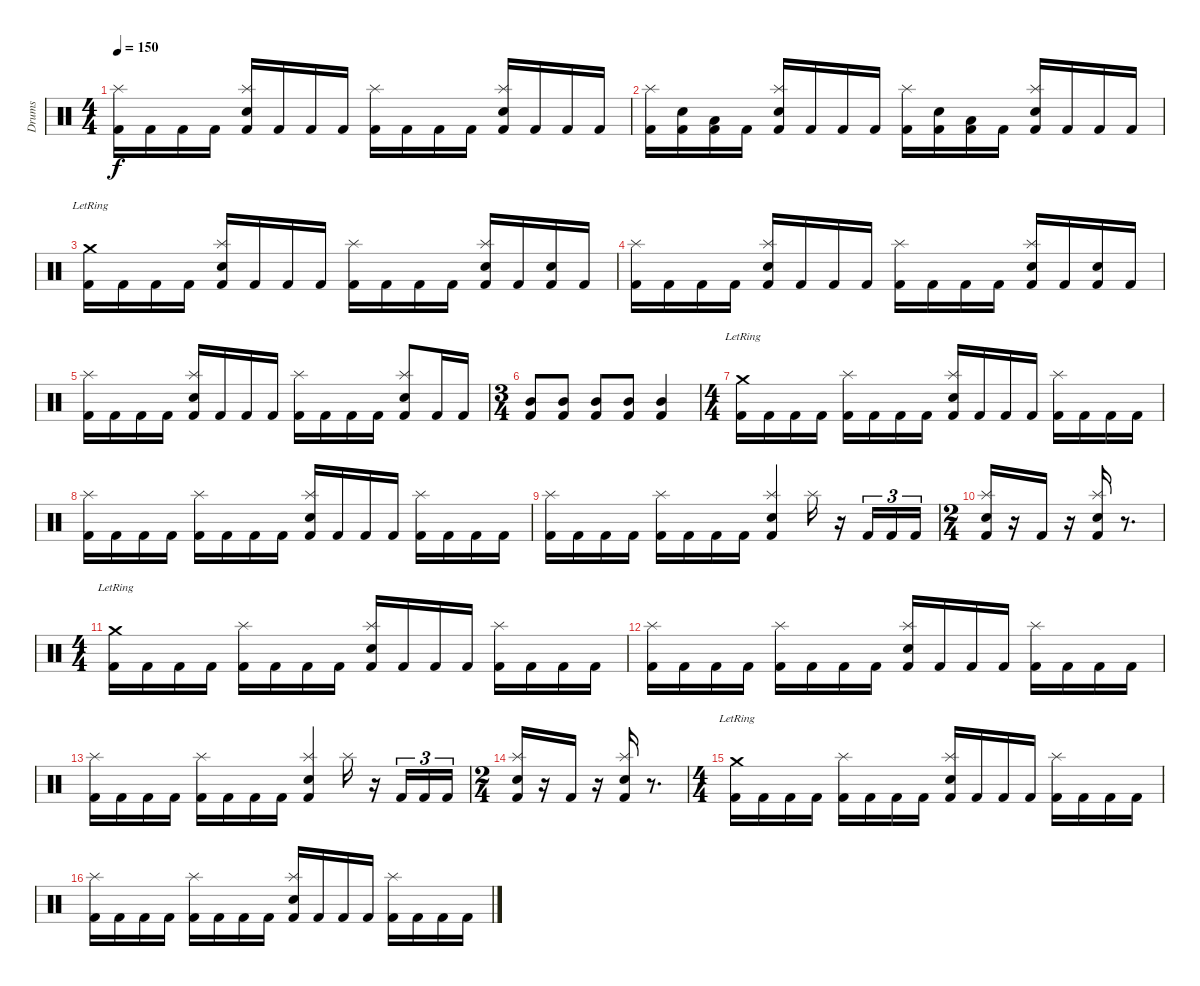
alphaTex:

\track ("Drums" "Drums") {instrument percussion}
\staff {score}
\articulation defaults
\ts (4 4)
\tempo 150
\clef neutral
\ks c
("Kick (hit) 2" "Splash (hit)").16{dy f} "Kick (hit) 2".16 "Kick (hit) 2".16 "Kick (hit) 2".16 ("Kick (hit) 2" "Snare (hit) 2" "Splash (hit)").16 "Kick (hit) 2".16 "Kick (hit) 2".16 "Kick (hit) 2".16 ("Kick (hit) 2" "Splash (hit)").16 "Kick (hit) 2".16 "Kick (hit) 2".16 "Kick (hit) 2".16 ("Kick (hit) 2" "Snare (hit) 2" "Splash (hit)").16 "Kick (hit) 2".16 "Kick (hit) 2".16 "Kick (hit) 2".16 |
("Kick (hit) 2" "Splash (hit)").16 ("Kick (hit) 2" "Electric Snare (hit)").16 ("Kick (hit) 2" "Low Floor Tom (hit)").16 "Kick (hit) 2".16 ("Kick (hit) 2" "Snare (hit) 2" "Splash (hit)").16 "Kick (hit) 2".16 "Kick (hit) 2".16 "Kick (hit) 2".16 ("Kick (hit) 2" "Splash (hit)").16 ("Kick (hit) 2" "Electric Snare (hit)").16 ("Kick (hit) 2" "Low Floor Tom (hit)").16 "Kick (hit) 2".16 ("Kick (hit) 2" "Snare (hit) 2" "Splash (hit)").16 "Kick (hit) 2".16 "Kick (hit) 2".16 "Kick (hit) 2".16 |
("Kick (hit) 2" "Crash medium (hit)"{lr}).16 "Kick (hit) 2".16 "Kick (hit) 2".16 "Kick (hit) 2".16 ("Kick (hit) 2" "Snare (hit) 2" "Splash (hit)").16 "Kick (hit) 2".16 "Kick (hit) 2".16 "Kick (hit) 2".16 ("Kick (hit) 2" "Splash (hit)").16 "Kick (hit) 2".16 "Kick (hit) 2".16 "Kick (hit) 2".16 ("Kick (hit) 2" "Snare (hit) 2" "Splash (hit)").16 "Kick (hit) 2".16 ("Kick (hit) 2" "Electric Snare (hit)").16 "Kick (hit) 2".16 |
("Kick (hit) 2" "Splash (hit)").16 "Kick (hit) 2".16 "Kick (hit) 2".16 "Kick (hit) 2".16 ("Kick (hit) 2" "Snare (hit) 2" "Splash (hit)").16 "Kick (hit) 2".16 "Kick (hit) 2".16 "Kick (hit) 2".16 ("Kick (hit) 2" "Splash (hit)").16 "Kick (hit) 2".16 "Kick (hit) 2".16 "Kick (hit) 2".16 ("Kick (hit) 2" "Snare (hit) 2" "Splash (hit)").16 "Kick (hit) 2".16 ("Kick (hit) 2" "Electric Snare (hit)").16 "Kick (hit) 2".16 |
("Kick (hit) 2" "Splash (hit)").16 "Kick (hit) 2".16 "Kick (hit) 2".16 "Kick (hit) 2".16 ("Kick (hit) 2" "Snare (hit) 2" "Splash (hit)").16 "Kick (hit) 2".16 "Kick (hit) 2".16 "Kick (hit) 2".16 ("Kick (hit) 2" "Splash (hit)").16 "Kick (hit) 2".16 "Kick (hit) 2".16 "Kick (hit) 2".16 ("Kick (hit) 2" "Snare (hit) 2" "Splash (hit)").8 "Kick (hit) 2".16 "Kick (hit) 2".16 |
\ts (3 4)
("Kick (hit) 2" "Mid Tom (hit)").8 ("Kick (hit) 2" "Mid Tom (hit)").8 ("Kick (hit) 2" "Mid Tom (hit)").8 ("Kick (hit) 2" "Mid Tom (hit)").8 ("Kick (hit) 2" "Mid Tom (hit)").4 |
\ts (4 4)
("Kick (hit) 2" "Crash medium (hit)"{lr}).16 "Kick (hit) 2".16 "Kick (hit) 2".16 "Kick (hit) 2".16 ("Kick (hit) 2" "Splash (hit)").16 "Kick (hit) 2".16 "Kick (hit) 2".16 "Kick (hit) 2".16 ("Kick (hit) 2" "Splash (hit)" "Snare (hit) 2").16 "Kick (hit) 2".16 "Kick (hit) 2".16 "Kick (hit) 2".16 ("Kick (hit) 2" "Splash (hit)").16 "Kick (hit) 2".16 "Kick (hit) 2".16 "Kick (hit) 2".16 |
("Kick (hit) 2" "Splash (hit)").16 "Kick (hit) 2".16 "Kick (hit) 2".16 "Kick (hit) 2".16 ("Kick (hit) 2" "Splash (hit)").16 "Kick (hit) 2".16 "Kick (hit) 2".16 "Kick (hit) 2".16 ("Kick (hit) 2" "Splash (hit)" "Snare (hit) 2").16 "Kick (hit) 2".16 "Kick (hit) 2".16 "Kick (hit) 2".16 ("Kick (hit) 2" "Splash (hit)").16 "Kick (hit) 2".16 "Kick (hit) 2".16 "Kick (hit) 2".16 |
("Kick (hit) 2" "Splash (hit)").16 "Kick (hit) 2".16 "Kick (hit) 2".16 "Kick (hit) 2".16 ("Kick (hit) 2" "Splash (hit)").16 "Kick (hit) 2".16 "Kick (hit) 2".16 "Kick (hit) 2".16 ("Kick (hit) 2" "Splash (hit)" "Snare (hit) 2").4 "Splash (hit)".16 r.16 "Kick (hit) 2".16{tu (3 2)} "Kick (hit) 2".16{tu (3 2)} "Kick (hit) 2".16{tu (3 2)} |
\ts (2 4)
("Kick (hit) 2" "Splash (hit)" "Snare (hit) 2").16 r.16 "Kick (hit) 2".16 r.16 ("Kick (hit) 2" "Splash (hit)" "Snare (hit) 2").16 r.8{d} |
\ts (4 4)
("Kick (hit) 2" "Crash medium (hit)"{lr}).16 "Kick (hit) 2".16 "Kick (hit) 2".16 "Kick (hit) 2".16 ("Kick (hit) 2" "Splash (hit)").16 "Kick (hit) 2".16 "Kick (hit) 2".16 "Kick (hit) 2".16 ("Kick (hit) 2" "Splash (hit)" "Snare (hit) 2").16 "Kick (hit) 2".16 "Kick (hit) 2".16 "Kick (hit) 2".16 ("Kick (hit) 2" "Splash (hit)").16 "Kick (hit) 2".16 "Kick (hit) 2".16 "Kick (hit) 2".16 |
("Kick (hit) 2" "Splash (hit)").16 "Kick (hit) 2".16 "Kick (hit) 2".16 "Kick (hit) 2".16 ("Kick (hit) 2" "Splash (hit)").16 "Kick (hit) 2".16 "Kick (hit) 2".16 "Kick (hit) 2".16 ("Kick (hit) 2" "Splash (hit)" "Snare (hit) 2").16 "Kick (hit) 2".16 "Kick (hit) 2".16 "Kick (hit) 2".16 ("Kick (hit) 2" "Splash (hit)").16 "Kick (hit) 2".16 "Kick (hit) 2".16 "Kick (hit) 2".16 |
("Kick (hit) 2" "Splash (hit)").16 "Kick (hit) 2".16 "Kick (hit) 2".16 "Kick (hit) 2".16 ("Kick (hit) 2" "Splash (hit)").16 "Kick (hit) 2".16 "Kick (hit) 2".16 "Kick (hit) 2".16 ("Kick (hit) 2" "Splash (hit)" "Snare (hit) 2").4 "Splash (hit)".16 r.16 "Kick (hit) 2".16{tu (3 2)} "Kick (hit) 2".16{tu (3 2)} "Kick (hit) 2".16{tu (3 2)} |
\ts (2 4)
("Kick (hit) 2" "Splash (hit)" "Snare (hit) 2").16 r.16 "Kick (hit) 2".16 r.16 ("Kick (hit) 2" "Splash (hit)" "Snare (hit) 2").16 r.8{d} |
\ts (4 4)
("Kick (hit) 2" "Crash medium (hit)"{lr}).16 "Kick (hit) 2".16 "Kick (hit) 2".16 "Kick (hit) 2".16 ("Kick (hit) 2" "Splash (hit)").16 "Kick (hit) 2".16 "Kick (hit) 2".16 "Kick (hit) 2".16 ("Kick (hit) 2" "Splash (hit)" "Snare (hit) 2").16 "Kick (hit) 2".16 "Kick (hit) 2".16 "Kick (hit) 2".16 ("Kick (hit) 2" "Splash (hit)").16 "Kick (hit) 2".16 "Kick (hit) 2".16 "Kick (hit) 2".16 |
("Kick (hit) 2" "Splash (hit)").16 "Kick (hit) 2".16 "Kick (hit) 2".16 "Kick (hit) 2".16 ("Kick (hit) 2" "Splash (hit)").16 "Kick (hit) 2".16 "Kick (hit) 2".16 "Kick (hit) 2".16 ("Kick (hit) 2" "Splash (hit)" "Snare (hit) 2").16 "Kick (hit) 2".16 "Kick (hit) 2".16 "Kick (hit) 2".16 ("Kick (hit) 2" "Splash (hit)").16 "Kick (hit) 2".16 "Kick (hit) 2".16 "Kick (hit) 2".16
